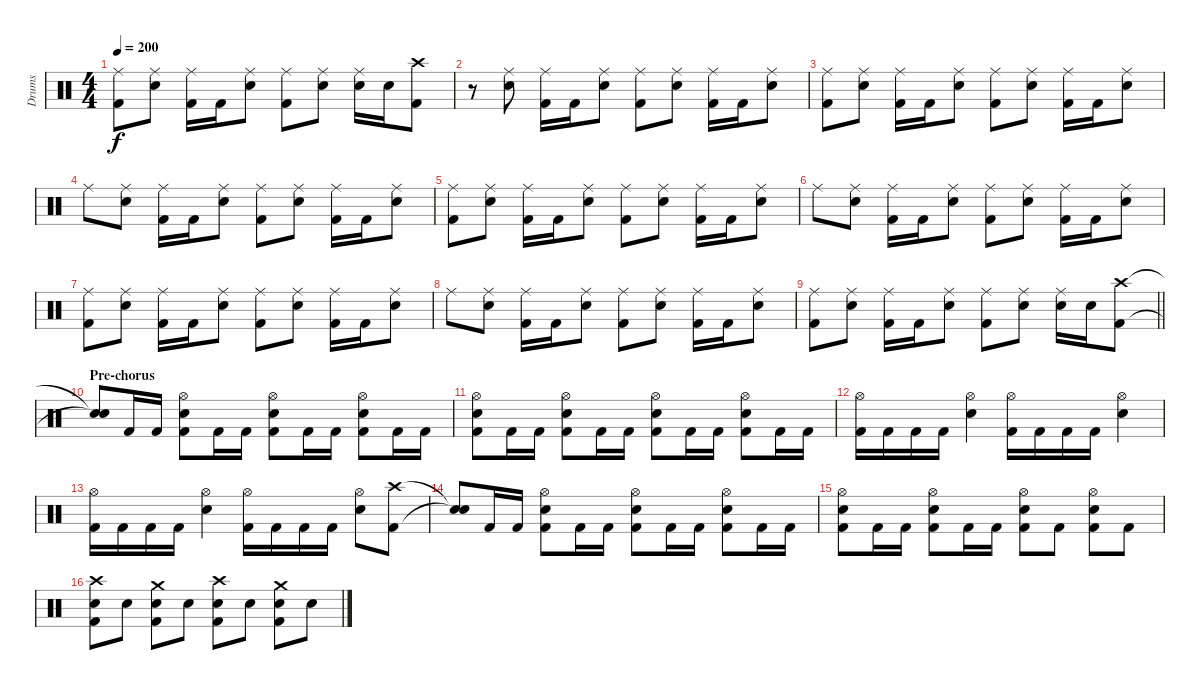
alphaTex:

\track ("Drums" "Drums") {instrument percussion}
\staff {score}
\articulation defaults
\ts (4 4)
\tempo 200
\clef neutral
\ks c
("Ride (middle)" "Kick (hit) 2").8{dy f} ("Ride (middle)" "Snare (hit) 2").8 ("Ride (middle)" "Kick (hit) 2").16 "Kick (hit) 2".16 ("Ride (middle)" "Snare (hit) 2").8 ("Ride (middle)" "Kick (hit) 2").8 ("Ride (middle)" "Snare (hit) 2").8 ("Ride (middle)" "Snare (hit) 2").16 "Snare (hit) 2".16 ("Crash high (hit)" "Kick (hit) 2").8 |
r.8 ("Ride (middle)" "Snare (hit) 2").8 ("Ride (middle)" "Kick (hit) 2").16 "Kick (hit) 2".16 ("Ride (middle)" "Snare (hit) 2").8 ("Ride (middle)" "Kick (hit) 2").8 ("Ride (middle)" "Snare (hit) 2").8 ("Ride (middle)" "Kick (hit) 2").16 "Kick (hit) 2".16 ("Ride (middle)" "Snare (hit) 2").8 |
("Ride (middle)" "Kick (hit) 2").8 ("Ride (middle)" "Snare (hit) 2").8 ("Ride (middle)" "Kick (hit) 2").16 "Kick (hit) 2".16 ("Ride (middle)" "Snare (hit) 2").8 ("Ride (middle)" "Kick (hit) 2").8 ("Ride (middle)" "Snare (hit) 2").8 ("Ride (middle)" "Kick (hit) 2").16 "Kick (hit) 2".16 ("Ride (middle)" "Snare (hit) 2").8 |
"Ride (middle)".8 ("Ride (middle)" "Snare (hit) 2").8 ("Ride (middle)" "Kick (hit) 2").16 "Kick (hit) 2".16 ("Ride (middle)" "Snare (hit) 2").8 ("Ride (middle)" "Kick (hit) 2").8 ("Ride (middle)" "Snare (hit) 2").8 ("Ride (middle)" "Kick (hit) 2").16 "Kick (hit) 2".16 ("Ride (middle)" "Snare (hit) 2").8 |
("Ride (middle)" "Kick (hit) 2").8 ("Ride (middle)" "Snare (hit) 2").8 ("Ride (middle)" "Kick (hit) 2").16 "Kick (hit) 2".16 ("Ride (middle)" "Snare (hit) 2").8 ("Ride (middle)" "Kick (hit) 2").8 ("Ride (middle)" "Snare (hit) 2").8 ("Ride (middle)" "Kick (hit) 2").16 "Kick (hit) 2".16 ("Ride (middle)" "Snare (hit) 2").8 |
"Ride (middle)".8 ("Ride (middle)" "Snare (hit) 2").8 ("Ride (middle)" "Kick (hit) 2").16 "Kick (hit) 2".16 ("Ride (middle)" "Snare (hit) 2").8 ("Ride (middle)" "Kick (hit) 2").8 ("Ride (middle)" "Snare (hit) 2").8 ("Ride (middle)" "Kick (hit) 2").16 "Kick (hit) 2".16 ("Ride (middle)" "Snare (hit) 2").8 |
("Ride (middle)" "Kick (hit) 2").8 ("Ride (middle)" "Snare (hit) 2").8 ("Ride (middle)" "Kick (hit) 2").16 "Kick (hit) 2".16 ("Ride (middle)" "Snare (hit) 2").8 ("Ride (middle)" "Kick (hit) 2").8 ("Ride (middle)" "Snare (hit) 2").8 ("Ride (middle)" "Kick (hit) 2").16 "Kick (hit) 2".16 ("Ride (middle)" "Snare (hit) 2").8 |
"Ride (middle)".8 ("Ride (middle)" "Snare (hit) 2").8 ("Ride (middle)" "Kick (hit) 2").16 "Kick (hit) 2".16 ("Ride (middle)" "Snare (hit) 2").8 ("Ride (middle)" "Kick (hit) 2").8 ("Ride (middle)" "Snare (hit) 2").8 ("Ride (middle)" "Kick (hit) 2").16 "Kick (hit) 2".16 ("Ride (middle)" "Snare (hit) 2").8 |
\barLineRight lightlight
("Ride (middle)" "Kick (hit) 2").8 ("Ride (middle)" "Snare (hit) 2").8 ("Ride (middle)" "Kick (hit) 2").16 "Kick (hit) 2".16 ("Ride (middle)" "Snare (hit) 2").8 ("Ride (middle)" "Kick (hit) 2").8 ("Ride (middle)" "Snare (hit) 2").8 ("Ride (middle)" "Snare (hit) 2").16 "Snare (hit) 2".16 ("Crash high (hit)" "Kick (hit) 2").8 |
\section ("" "Pre-chorus")
("Snare (hit)"{t} "Snare (hit)"{t}).8 "Kick (hit) 2".16 "Kick (hit) 2".16 ("Hi-Hat (open)" "Snare (hit) 2" "Kick (hit) 2").8 "Kick (hit) 2".16 "Kick (hit) 2".16 ("Hi-Hat (open)" "Snare (hit) 2" "Kick (hit) 2").8 "Kick (hit) 2".16 "Kick (hit) 2".16 ("Hi-Hat (open)" "Snare (hit) 2" "Kick (hit) 2").8 "Kick (hit) 2".16 "Kick (hit) 2".16 |
("Hi-Hat (open)" "Snare (hit) 2" "Kick (hit) 2").8 "Kick (hit) 2".16 "Kick (hit) 2".16 ("Hi-Hat (open)" "Snare (hit) 2" "Kick (hit) 2").8 "Kick (hit) 2".16 "Kick (hit) 2".16 ("Hi-Hat (open)" "Snare (hit) 2" "Kick (hit) 2").8 "Kick (hit) 2".16 "Kick (hit) 2".16 ("Hi-Hat (open)" "Snare (hit) 2" "Kick (hit) 2").8 "Kick (hit) 2".16 "Kick (hit) 2".16 |
("Hi-Hat (open)" "Kick (hit) 2").16 "Kick (hit) 2".16 "Kick (hit) 2".16 "Kick (hit) 2".16 ("Hi-Hat (open)" "Snare (hit) 2").4 ("Hi-Hat (open)" "Kick (hit) 2").16 "Kick (hit) 2".16 "Kick (hit) 2".16 "Kick (hit) 2".16 ("Hi-Hat (open)" "Snare (hit) 2").4 |
("Hi-Hat (open)" "Kick (hit) 2").16 "Kick (hit) 2".16 "Kick (hit) 2".16 "Kick (hit) 2".16 ("Hi-Hat (open)" "Snare (hit) 2").4 ("Hi-Hat (open)" "Kick (hit) 2").16 "Kick (hit) 2".16 "Kick (hit) 2".16 "Kick (hit) 2".16 ("Hi-Hat (open)" "Snare (hit) 2").8 ("Crash high (hit)" "Kick (hit) 2").8 |
("Snare (hit)"{t} "Snare (hit)"{t}).8 "Kick (hit) 2".16 "Kick (hit) 2".16 ("Hi-Hat (open)" "Snare (hit) 2" "Kick (hit) 2").8 "Kick (hit) 2".16 "Kick (hit) 2".16 ("Hi-Hat (open)" "Snare (hit) 2" "Kick (hit) 2").8 "Kick (hit) 2".16 "Kick (hit) 2".16 ("Hi-Hat (open)" "Snare (hit) 2" "Kick (hit) 2").8 "Kick (hit) 2".16 "Kick (hit) 2".16 |
("Hi-Hat (open)" "Snare (hit) 2" "Kick (hit) 2").8 "Kick (hit) 2".16 "Kick (hit) 2".16 ("Hi-Hat (open)" "Snare (hit) 2" "Kick (hit) 2").8 "Kick (hit) 2".16 "Kick (hit) 2".16 ("Hi-Hat (open)" "Snare (hit) 2" "Kick (hit) 2").8 "Kick (hit) 2".8 ("Hi-Hat (open)" "Snare (hit) 2" "Kick (hit) 2").8 "Kick (hit) 2".8 |
("Crash high (hit)" "Snare (hit) 2" "Kick (hit) 2").8 "Snare (hit) 2".8 ("Crash medium (hit)" "Snare (hit) 2" "Kick (hit) 2").8 "Snare (hit) 2".8 ("Crash high (hit)" "Snare (hit) 2" "Kick (hit) 2").8 "Snare (hit) 2".8 ("Crash medium (hit)" "Snare (hit) 2" "Kick (hit) 2").8 "Snare (hit) 2".8
